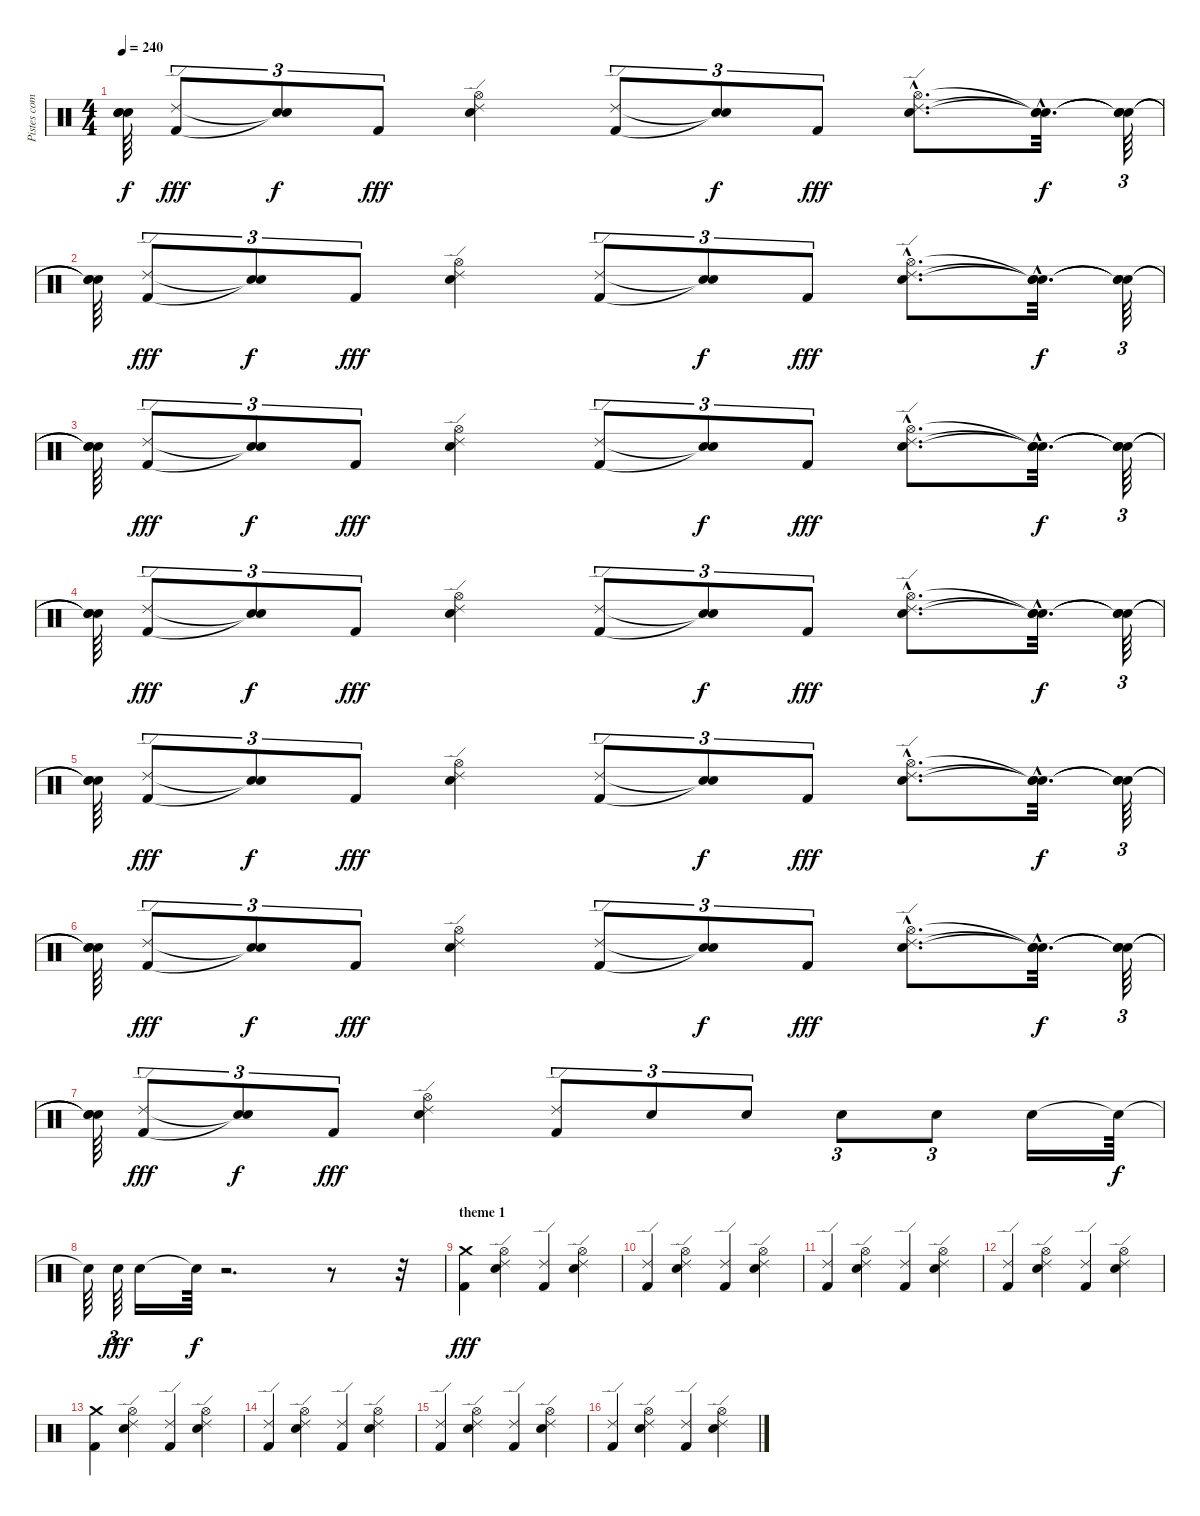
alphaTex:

\track ("Pistes combinées" "Pistes com") {instrument percussion}
\staff {score}
\articulation defaults
\ts (4 4)
\tempo 240
\clef neutral
\ks c
("Snare (hit)"{t} "Snare (hit)"{t} "Snare (hit)"{t}).64{dy f} ("Kick (hit) 2" "Ride (edge) 2").8{tu (3 2) dy fff} ("Snare (hit)"{t} "Snare (hit)"{t}).8{tu (3 2) dy f} "Kick (hit) 2".8{tu (3 2) dy fff} ("Electric Snare (hit)" "Ride (edge) 2" "Hi-Hat (open)").4 ("Kick (hit) 2" "Ride (edge) 2").8{tu (3 2)} ("Snare (hit)"{t} "Snare (hit)"{t}).8{tu (3 2) dy f} "Kick (hit) 2".8{tu (3 2) dy fff} ("Electric Snare (hit)"{hac} "Ride (edge) 2"{hac} "Hi-Hat (open)"{hac}).8{d} ("Snare (hit)"{hac t} "Snare (hit)"{hac t} "Snare (hit)"{hac t}).32{d dy f} ("Snare (hit)"{t} "Snare (hit)"{t} "Snare (hit)"{t}).64{tu (3 2)} |
("Snare (hit)"{t} "Snare (hit)"{t} "Snare (hit)"{t}).64 ("Kick (hit) 2" "Ride (edge) 2").8{tu (3 2) dy fff} ("Snare (hit)"{t} "Snare (hit)"{t}).8{tu (3 2) dy f} "Kick (hit) 2".8{tu (3 2) dy fff} ("Electric Snare (hit)" "Ride (edge) 2" "Hi-Hat (open)").4 ("Kick (hit) 2" "Ride (edge) 2").8{tu (3 2)} ("Snare (hit)"{t} "Snare (hit)"{t}).8{tu (3 2) dy f} "Kick (hit) 2".8{tu (3 2) dy fff} ("Electric Snare (hit)"{hac} "Ride (edge) 2"{hac} "Hi-Hat (open)"{hac}).8{d} ("Snare (hit)"{hac t} "Snare (hit)"{hac t} "Snare (hit)"{hac t}).32{d dy f} ("Snare (hit)"{t} "Snare (hit)"{t} "Snare (hit)"{t}).64{tu (3 2)} |
("Snare (hit)"{t} "Snare (hit)"{t} "Snare (hit)"{t}).64 ("Kick (hit) 2" "Ride (edge) 2").8{tu (3 2) dy fff} ("Snare (hit)"{t} "Snare (hit)"{t}).8{tu (3 2) dy f} "Kick (hit) 2".8{tu (3 2) dy fff} ("Electric Snare (hit)" "Ride (edge) 2" "Hi-Hat (open)").4 ("Kick (hit) 2" "Ride (edge) 2").8{tu (3 2)} ("Snare (hit)"{t} "Snare (hit)"{t}).8{tu (3 2) dy f} "Kick (hit) 2".8{tu (3 2) dy fff} ("Electric Snare (hit)"{hac} "Ride (edge) 2"{hac} "Hi-Hat (open)"{hac}).8{d} ("Snare (hit)"{hac t} "Snare (hit)"{hac t} "Snare (hit)"{hac t}).32{d dy f} ("Snare (hit)"{t} "Snare (hit)"{t} "Snare (hit)"{t}).64{tu (3 2)} |
("Snare (hit)"{t} "Snare (hit)"{t} "Snare (hit)"{t}).64 ("Kick (hit) 2" "Ride (edge) 2").8{tu (3 2) dy fff} ("Snare (hit)"{t} "Snare (hit)"{t}).8{tu (3 2) dy f} "Kick (hit) 2".8{tu (3 2) dy fff} ("Electric Snare (hit)" "Ride (edge) 2" "Hi-Hat (open)").4 ("Kick (hit) 2" "Ride (edge) 2").8{tu (3 2)} ("Snare (hit)"{t} "Snare (hit)"{t}).8{tu (3 2) dy f} "Kick (hit) 2".8{tu (3 2) dy fff} ("Electric Snare (hit)"{hac} "Ride (edge) 2"{hac} "Hi-Hat (open)"{hac}).8{d} ("Snare (hit)"{hac t} "Snare (hit)"{hac t} "Snare (hit)"{hac t}).32{d dy f} ("Snare (hit)"{t} "Snare (hit)"{t} "Snare (hit)"{t}).64{tu (3 2)} |
("Snare (hit)"{t} "Snare (hit)"{t} "Snare (hit)"{t}).64 ("Kick (hit) 2" "Ride (edge) 2").8{tu (3 2) dy fff} ("Snare (hit)"{t} "Snare (hit)"{t}).8{tu (3 2) dy f} "Kick (hit) 2".8{tu (3 2) dy fff} ("Electric Snare (hit)" "Ride (edge) 2" "Hi-Hat (open)").4 ("Kick (hit) 2" "Ride (edge) 2").8{tu (3 2)} ("Snare (hit)"{t} "Snare (hit)"{t}).8{tu (3 2) dy f} "Kick (hit) 2".8{tu (3 2) dy fff} ("Electric Snare (hit)"{hac} "Ride (edge) 2"{hac} "Hi-Hat (open)"{hac}).8{d} ("Snare (hit)"{hac t} "Snare (hit)"{hac t} "Snare (hit)"{hac t}).32{d dy f} ("Snare (hit)"{t} "Snare (hit)"{t} "Snare (hit)"{t}).64{tu (3 2)} |
("Snare (hit)"{t} "Snare (hit)"{t} "Snare (hit)"{t}).64 ("Kick (hit) 2" "Ride (edge) 2").8{tu (3 2) dy fff} ("Snare (hit)"{t} "Snare (hit)"{t}).8{tu (3 2) dy f} "Kick (hit) 2".8{tu (3 2) dy fff} ("Electric Snare (hit)" "Ride (edge) 2" "Hi-Hat (open)").4 ("Kick (hit) 2" "Ride (edge) 2").8{tu (3 2)} ("Snare (hit)"{t} "Snare (hit)"{t}).8{tu (3 2) dy f} "Kick (hit) 2".8{tu (3 2) dy fff} ("Electric Snare (hit)"{hac} "Ride (edge) 2"{hac} "Hi-Hat (open)"{hac}).8{d} ("Snare (hit)"{hac t} "Snare (hit)"{hac t} "Snare (hit)"{hac t}).32{d dy f} ("Snare (hit)"{t} "Snare (hit)"{t} "Snare (hit)"{t}).64{tu (3 2)} |
("Snare (hit)"{t} "Snare (hit)"{t} "Snare (hit)"{t}).64 ("Kick (hit) 2" "Ride (edge) 2").8{tu (3 2) dy fff} ("Snare (hit)"{t} "Snare (hit)"{t}).8{tu (3 2) dy f} "Kick (hit) 2".8{tu (3 2) dy fff} ("Electric Snare (hit)" "Ride (edge) 2" "Hi-Hat (open)").4 ("Kick (hit) 2" "Ride (edge) 2").8{tu (3 2)} "Electric Snare (hit)".8{tu (3 2)} "Electric Snare (hit)".8{tu (3 2)} "Electric Snare (hit)".8{tu (3 2)} "Electric Snare (hit)".8{tu (3 2)} "Electric Snare (hit)".16 "Snare (hit)"{t}.64{dy f} |
"Snare (hit)"{t}.64 "Electric Snare (hit)".64{tu (3 2) dy fff} "Electric Snare (hit)".16 "Snare (hit)"{t}.64{dy f} r.2{d} r.8 r.32 |
\section ("" "theme 1")
("Kick (hit) 2" "Crash medium (hit)").4{dy fff} ("Electric Snare (hit)" "Ride (edge) 2" "Hi-Hat (open)").4 ("Kick (hit) 2" "Ride (edge) 2").4 ("Electric Snare (hit)" "Ride (edge) 2" "Hi-Hat (open)").4 |
("Kick (hit) 2" "Ride (edge) 2").4 ("Electric Snare (hit)" "Ride (edge) 2" "Hi-Hat (open)").4 ("Kick (hit) 2" "Ride (edge) 2").4 ("Electric Snare (hit)" "Ride (edge) 2" "Hi-Hat (open)").4 |
("Kick (hit) 2" "Ride (edge) 2").4 ("Electric Snare (hit)" "Ride (edge) 2" "Hi-Hat (open)").4 ("Kick (hit) 2" "Ride (edge) 2").4 ("Electric Snare (hit)" "Ride (edge) 2" "Hi-Hat (open)").4 |
("Kick (hit) 2" "Ride (edge) 2").4 ("Electric Snare (hit)" "Ride (edge) 2" "Hi-Hat (open)").4 ("Kick (hit) 2" "Ride (edge) 2").4 ("Electric Snare (hit)" "Ride (edge) 2" "Hi-Hat (open)").4 |
("Kick (hit) 2" "Crash medium (hit)").4 ("Electric Snare (hit)" "Ride (edge) 2" "Hi-Hat (open)").4 ("Kick (hit) 2" "Ride (edge) 2").4 ("Electric Snare (hit)" "Ride (edge) 2" "Hi-Hat (open)").4 |
("Kick (hit) 2" "Ride (edge) 2").4 ("Electric Snare (hit)" "Ride (edge) 2" "Hi-Hat (open)").4 ("Kick (hit) 2" "Ride (edge) 2").4 ("Electric Snare (hit)" "Ride (edge) 2" "Hi-Hat (open)").4 |
("Kick (hit) 2" "Ride (edge) 2").4 ("Electric Snare (hit)" "Ride (edge) 2" "Hi-Hat (open)").4 ("Kick (hit) 2" "Ride (edge) 2").4 ("Electric Snare (hit)" "Ride (edge) 2" "Hi-Hat (open)").4 |
("Kick (hit) 2" "Ride (edge) 2").4 ("Electric Snare (hit)" "Ride (edge) 2" "Hi-Hat (open)").4 ("Kick (hit) 2" "Ride (edge) 2").4 ("Electric Snare (hit)" "Ride (edge) 2" "Hi-Hat (open)").4
